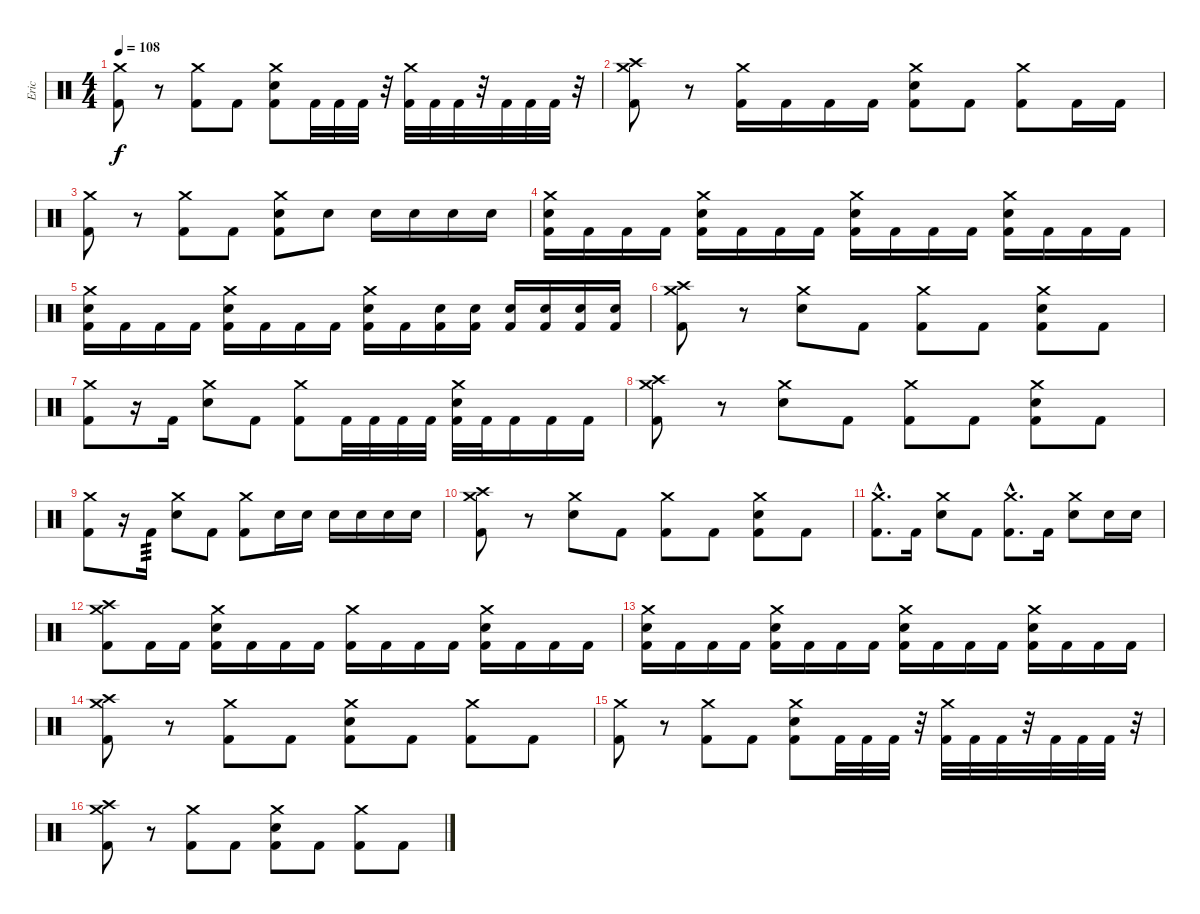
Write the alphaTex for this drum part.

\track ("Eric" "Eric") {instrument percussion}
\staff {score}
\articulation defaults
\ts (4 4)
\tempo 108
\clef neutral
\ks c
("Crash medium (hit)" "Kick (hit) 2").8{dy f} r.8 ("Crash medium (hit)" "Kick (hit) 2").8 "Kick (hit) 2".8 ("Crash medium (hit)" "Electric Snare (hit)" "Kick (hit) 2").8 "Kick (hit) 2".32 "Kick (hit) 2".32 "Kick (hit) 2".32 r.32 ("Crash medium (hit)" "Kick (hit) 2").32 "Kick (hit) 2".32 "Kick (hit) 2".32 r.32 "Kick (hit) 2".32 "Kick (hit) 2".32 "Kick (hit) 2".32 r.32 |
("Crash medium (hit)" "Crash high (hit)" "Kick (hit) 2").8 r.8 ("Crash medium (hit)" "Kick (hit) 2").16 "Kick (hit) 2".16 "Kick (hit) 2".16 "Kick (hit) 2".16 ("Crash medium (hit)" "Electric Snare (hit)" "Kick (hit) 2").8 "Kick (hit) 2".8 ("Crash medium (hit)" "Kick (hit) 2").8 "Kick (hit) 2".16 "Kick (hit) 2".16 |
("Crash medium (hit)" "Kick (hit) 2").8 r.8 ("Crash medium (hit)" "Kick (hit) 2").8 "Kick (hit) 2".8 ("Crash medium (hit)" "Electric Snare (hit)" "Kick (hit) 2").8 "Electric Snare (hit)".8 "Electric Snare (hit)".16 "Electric Snare (hit)".16 "Electric Snare (hit)".16 "Electric Snare (hit)".16 |
("Crash medium (hit)" "Electric Snare (hit)" "Kick (hit) 2").16 "Kick (hit) 2".16 "Kick (hit) 2".16 "Kick (hit) 2".16 ("Crash medium (hit)" "Electric Snare (hit)" "Kick (hit) 2").16 "Kick (hit) 2".16 "Kick (hit) 2".16 "Kick (hit) 2".16 ("Crash medium (hit)" "Electric Snare (hit)" "Kick (hit) 2").16 "Kick (hit) 2".16 "Kick (hit) 2".16 "Kick (hit) 2".16 ("Crash medium (hit)" "Electric Snare (hit)" "Kick (hit) 2").16 "Kick (hit) 2".16 "Kick (hit) 2".16 "Kick (hit) 2".16 |
("Crash medium (hit)" "Electric Snare (hit)" "Kick (hit) 2").16 "Kick (hit) 2".16 "Kick (hit) 2".16 "Kick (hit) 2".16 ("Crash medium (hit)" "Electric Snare (hit)" "Kick (hit) 2").16 "Kick (hit) 2".16 "Kick (hit) 2".16 "Kick (hit) 2".16 ("Crash medium (hit)" "Electric Snare (hit)" "Kick (hit) 2").16 "Kick (hit) 2".16 ("Electric Snare (hit)" "Kick (hit) 2").16 ("Electric Snare (hit)" "Kick (hit) 2").16 ("Electric Snare (hit)" "Kick (hit) 2").16 ("Electric Snare (hit)" "Kick (hit) 2").16 ("Electric Snare (hit)" "Kick (hit) 2").16 ("Electric Snare (hit)" "Kick (hit) 2").16 |
("Crash medium (hit)" "Crash high (hit)" "Kick (hit) 2").8 r.8 ("Crash medium (hit)" "Electric Snare (hit)").8 "Kick (hit) 2".8 ("Crash medium (hit)" "Kick (hit) 2").8 "Kick (hit) 2".8 ("Crash medium (hit)" "Electric Snare (hit)" "Kick (hit) 2").8 "Kick (hit) 2".8 |
("Crash medium (hit)" "Kick (hit) 2").8 r.16 "Kick (hit) 2".16 ("Crash medium (hit)" "Electric Snare (hit)").8 "Kick (hit) 2".8 ("Crash medium (hit)" "Kick (hit) 2").8 "Kick (hit) 2".32 "Kick (hit) 2".32 "Kick (hit) 2".32 "Kick (hit) 2".32 ("Crash medium (hit)" "Electric Snare (hit)" "Kick (hit) 2").32 "Kick (hit) 2".32 "Kick (hit) 2".16 "Kick (hit) 2".16 "Kick (hit) 2".16 |
("Crash medium (hit)" "Crash high (hit)" "Kick (hit) 2").8 r.8 ("Crash medium (hit)" "Electric Snare (hit)").8 "Kick (hit) 2".8 ("Crash medium (hit)" "Kick (hit) 2").8 "Kick (hit) 2".8 ("Crash medium (hit)" "Electric Snare (hit)" "Kick (hit) 2").8 "Kick (hit) 2".8 |
("Crash medium (hit)" "Kick (hit) 2").8 r.16 "Kick (hit) 2".16{tp 3} ("Crash medium (hit)" "Electric Snare (hit)").8 "Kick (hit) 2".8 ("Crash medium (hit)" "Kick (hit) 2").8 "Electric Snare (hit)".16 "Electric Snare (hit)".16 "Electric Snare (hit)".16 "Electric Snare (hit)".16 "Electric Snare (hit)".16 "Electric Snare (hit)".16 |
("Crash medium (hit)" "Crash high (hit)" "Kick (hit) 2").8 r.8 ("Crash medium (hit)" "Electric Snare (hit)").8 "Kick (hit) 2".8 ("Crash medium (hit)" "Kick (hit) 2").8 "Kick (hit) 2".8 ("Crash medium (hit)" "Electric Snare (hit)" "Kick (hit) 2").8 "Kick (hit) 2".8 |
("Crash medium (hit)"{hac} "Kick (hit) 2"{hac}).8{d} "Kick (hit) 2".16 ("Crash medium (hit)" "Electric Snare (hit)").8 "Kick (hit) 2".8 ("Crash medium (hit)"{hac} "Kick (hit) 2"{hac}).8{d} "Kick (hit) 2".16 ("Crash medium (hit)" "Electric Snare (hit)").8 "Electric Snare (hit)".16 "Electric Snare (hit)".16 |
("Crash medium (hit)" "Crash high (hit)" "Kick (hit) 2").8 "Kick (hit) 2".16 "Kick (hit) 2".16 ("Crash medium (hit)" "Electric Snare (hit)" "Kick (hit) 2").16 "Kick (hit) 2".16 "Kick (hit) 2".16 "Kick (hit) 2".16 ("Crash medium (hit)" "Kick (hit) 2").16 "Kick (hit) 2".16 "Kick (hit) 2".16 "Kick (hit) 2".16 ("Crash medium (hit)" "Electric Snare (hit)" "Kick (hit) 2").16 "Kick (hit) 2".16 "Kick (hit) 2".16 "Kick (hit) 2".16 |
("Crash medium (hit)" "Electric Snare (hit)" "Kick (hit) 2").16 "Kick (hit) 2".16 "Kick (hit) 2".16 "Kick (hit) 2".16 ("Crash medium (hit)" "Electric Snare (hit)" "Kick (hit) 2").16 "Kick (hit) 2".16 "Kick (hit) 2".16 "Kick (hit) 2".16 ("Crash medium (hit)" "Electric Snare (hit)" "Kick (hit) 2").16 "Kick (hit) 2".16 "Kick (hit) 2".16 "Kick (hit) 2".16 ("Crash medium (hit)" "Electric Snare (hit)" "Kick (hit) 2").16 "Kick (hit) 2".16 "Kick (hit) 2".16 "Kick (hit) 2".16 |
("Crash medium (hit)" "Crash high (hit)" "Kick (hit) 2").8 r.8 ("Crash medium (hit)" "Kick (hit) 2").8 "Kick (hit) 2".8 ("Crash medium (hit)" "Electric Snare (hit)" "Kick (hit) 2").8 "Kick (hit) 2".8 ("Crash medium (hit)" "Kick (hit) 2").8 "Kick (hit) 2".8 |
("Crash medium (hit)" "Kick (hit) 2").8 r.8 ("Crash medium (hit)" "Kick (hit) 2").8 "Kick (hit) 2".8 ("Crash medium (hit)" "Electric Snare (hit)" "Kick (hit) 2").8 "Kick (hit) 2".32 "Kick (hit) 2".32 "Kick (hit) 2".32 r.32 ("Crash medium (hit)" "Kick (hit) 2").32 "Kick (hit) 2".32 "Kick (hit) 2".32 r.32 "Kick (hit) 2".32 "Kick (hit) 2".32 "Kick (hit) 2".32 r.32 |
("Crash medium (hit)" "Crash high (hit)" "Kick (hit) 2").8 r.8 ("Crash medium (hit)" "Kick (hit) 2").8 "Kick (hit) 2".8 ("Crash medium (hit)" "Electric Snare (hit)" "Kick (hit) 2").8 "Kick (hit) 2".8 ("Crash medium (hit)" "Kick (hit) 2").8 "Kick (hit) 2".8
